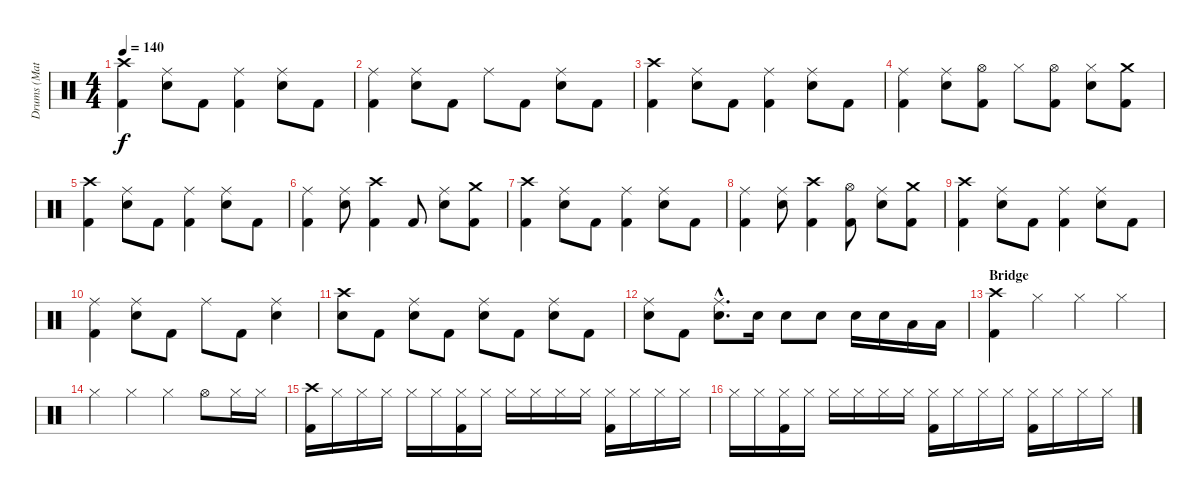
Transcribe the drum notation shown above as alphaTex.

\track ("Drums (Matt)" "Drums (Mat") {instrument percussion}
\staff {score}
\articulation defaults
\ts (4 4)
\tempo 140
\clef neutral
\ks c
("Crash high (hit)" "Kick (hit) 2").4{dy f} ("Ride (middle)" "Snare (hit) 2").8 "Kick (hit) 2".8 ("Ride (middle)" "Kick (hit) 2").4 ("Ride (middle)" "Snare (hit) 2").8 "Kick (hit) 2".8 |
("Ride (middle)" "Kick (hit) 2").4 ("Ride (middle)" "Snare (hit) 2").8 "Kick (hit) 2".8 "Ride (middle)".8 "Kick (hit) 2".8 ("Ride (middle)" "Snare (hit) 2").8 "Kick (hit) 2".8 |
("Crash high (hit)" "Kick (hit) 2").4 ("Ride (middle)" "Snare (hit) 2").8 "Kick (hit) 2".8 ("Ride (middle)" "Kick (hit) 2").4 ("Ride (middle)" "Snare (hit) 2").8 "Kick (hit) 2".8 |
("Ride (middle)" "Kick (hit) 2").4 ("Ride (middle)" "Snare (hit) 2").8 ("Hi-Hat (open)" "Kick (hit) 2").8 "Hi-Hat (closed)".8 ("Hi-Hat (open)" "Kick (hit) 2").8 ("Hi-Hat (closed)" "Snare (hit) 2").8 ("Crash medium (hit)" "Kick (hit) 2").8 |
("Crash high (hit)" "Kick (hit) 2").4 ("Ride (middle)" "Snare (hit) 2").8 "Kick (hit) 2".8 ("Ride (middle)" "Kick (hit) 2").4 ("Ride (middle)" "Snare (hit) 2").8 "Kick (hit) 2".8 |
("Ride (middle)" "Kick (hit) 2").4 ("Ride (middle)" "Snare (hit) 2").8 ("Crash high (hit)" "Kick (hit) 2").4 "Kick (hit) 2".8 ("Ride (middle)" "Snare (hit) 2").8 ("Crash medium (hit)" "Kick (hit) 2").8 |
("Crash high (hit)" "Kick (hit) 2").4 ("Ride (middle)" "Snare (hit) 2").8 "Kick (hit) 2".8 ("Ride (middle)" "Kick (hit) 2").4 ("Ride (middle)" "Snare (hit) 2").8 "Kick (hit) 2".8 |
("Ride (middle)" "Kick (hit) 2").4 ("Ride (middle)" "Snare (hit) 2").8 ("Crash high (hit)" "Kick (hit) 2").4 ("Hi-Hat (open)" "Kick (hit) 2").8 ("Ride (middle)" "Snare (hit) 2").8 ("Crash medium (hit)" "Kick (hit) 2").8 |
("Crash high (hit)" "Kick (hit) 2").4 ("Ride (middle)" "Snare (hit) 2").8 "Kick (hit) 2".8 ("Ride (middle)" "Kick (hit) 2").4 ("Ride (middle)" "Snare (hit) 2").8 "Kick (hit) 2".8 |
("Ride (middle)" "Kick (hit) 2").4 ("Ride (middle)" "Snare (hit) 2").8 "Kick (hit) 2".8 "Ride (middle)".8 "Kick (hit) 2".8 ("Ride (middle)" "Snare (hit) 2").4 |
("Crash high (hit)" "Snare (hit) 2").8 "Kick (hit) 2".8 ("Ride (middle)" "Snare (hit) 2").8 "Kick (hit) 2".8 ("Ride (middle)" "Snare (hit) 2").8 "Kick (hit) 2".8 ("Ride (middle)" "Snare (hit) 2").8 "Kick (hit) 2".8 |
("Ride (middle)" "Snare (hit) 2").8 "Kick (hit) 2".8 ("Ride (middle)"{hac} "Snare (hit) 2"{hac}).8{d} "Snare (hit) 2".16 "Snare (hit) 2".8 "Snare (hit) 2".8 "Snare (hit) 2".16 "Snare (hit) 2".16 "Low Tom (hit)".16 "Low Tom (hit)".16 |
\section ("" "Bridge")
("Crash high (hit)" "Kick (hit) 2").4 "Hi-Hat (closed)".4 "Hi-Hat (closed)".4 "Hi-Hat (closed)".4 |
"Hi-Hat (closed)".4 "Hi-Hat (closed)".4 "Hi-Hat (closed)".4 "Hi-Hat (open)".8 "Hi-Hat (closed)".16 "Hi-Hat (closed)".16 |
("Crash high (hit)" "Kick (hit) 2").16 "Hi-Hat (closed)".16 "Hi-Hat (closed)".16 "Hi-Hat (closed)".16 "Hi-Hat (closed)".16 "Hi-Hat (closed)".16 ("Hi-Hat (closed)" "Kick (hit) 2").16 "Hi-Hat (closed)".16 "Hi-Hat (closed)".16 "Hi-Hat (closed)".16 "Hi-Hat (closed)".16 "Hi-Hat (closed)".16 ("Hi-Hat (closed)" "Kick (hit) 2").16 "Hi-Hat (closed)".16 "Hi-Hat (closed)".16 "Hi-Hat (closed)".16 |
"Hi-Hat (closed)".16 "Hi-Hat (closed)".16 ("Hi-Hat (closed)" "Kick (hit) 2").16 "Hi-Hat (closed)".16 "Hi-Hat (closed)".16 "Hi-Hat (closed)".16 "Hi-Hat (closed)".16 "Hi-Hat (closed)".16 ("Hi-Hat (closed)" "Kick (hit) 2").16 "Hi-Hat (closed)".16 "Hi-Hat (closed)".16 "Hi-Hat (closed)".16 ("Hi-Hat (closed)" "Kick (hit) 2").16 "Hi-Hat (closed)".16 "Hi-Hat (closed)".16 "Hi-Hat (closed)".16
